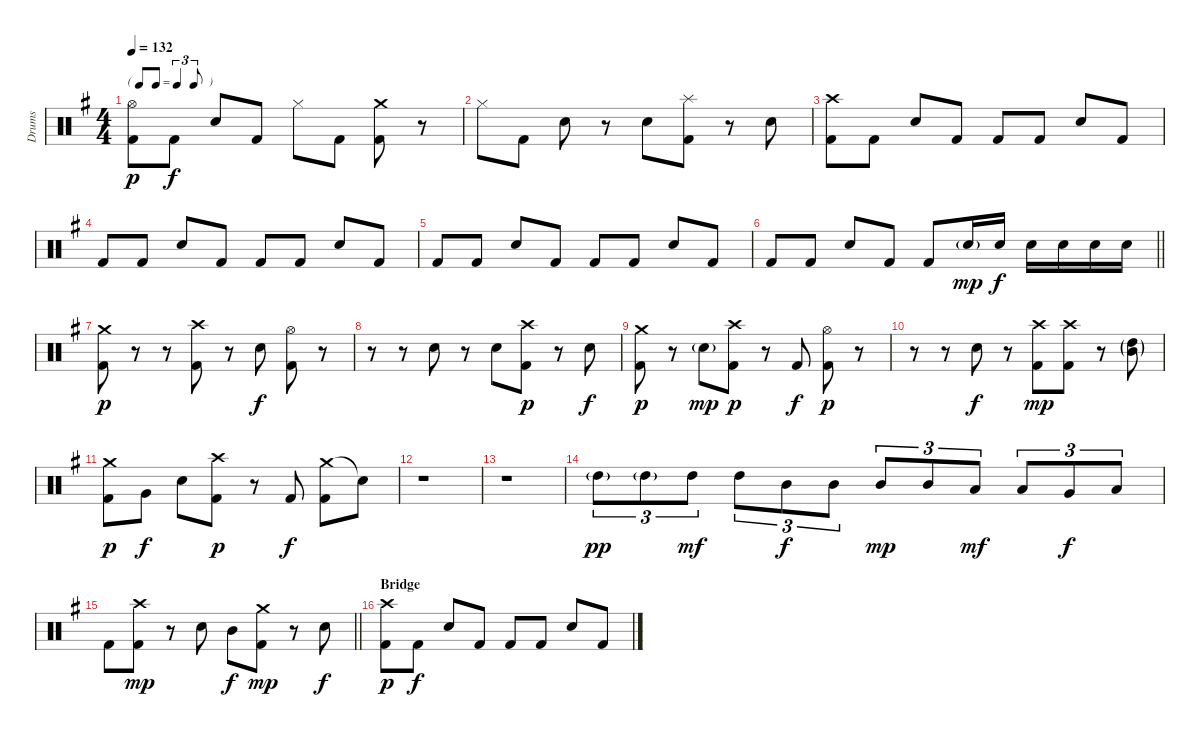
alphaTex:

\track ("Drums" "Drums") {instrument percussion}
\staff {score}
\articulation defaults
\ts (4 4)
\tf triplet8th
\tempo 132
\clef neutral
\ks g
("Hi-Hat (open)" "Kick (hit) 2").8{dy p} "Kick (hit) 2".8{dy f} "Electric Snare (hit)".8 "Kick (hit) 2".8 "Hi-Hat (closed)".8 "Kick (hit) 2".8 ("Crash medium (hit)" "Kick (hit) 2").8 r.8 |
"Hi-Hat (closed)".8 "Kick (hit) 2".8 "Electric Snare (hit)".8 r.8 "Electric Snare (hit)".8 ("Splash (hit)" "Kick (hit) 2").8 r.8 "Electric Snare (hit)".8 |
("Crash high (hit)" "Kick (hit) 2").8 "Kick (hit) 2".8 "Electric Snare (hit)".8 "Kick (hit) 2".8 "Kick (hit) 2".8 "Kick (hit) 2".8 "Electric Snare (hit)".8 "Kick (hit) 2".8 |
"Kick (hit) 2".8 "Kick (hit) 2".8 "Electric Snare (hit)".8 "Kick (hit) 2".8 "Kick (hit) 2".8 "Kick (hit) 2".8 "Electric Snare (hit)".8 "Kick (hit) 2".8 |
"Kick (hit) 2".8 "Kick (hit) 2".8 "Electric Snare (hit)".8 "Kick (hit) 2".8 "Kick (hit) 2".8 "Kick (hit) 2".8 "Electric Snare (hit)".8 "Kick (hit) 2".8 |
\barLineRight lightlight "Kick (hit) 2".8 "Kick (hit) 2".8 "Electric Snare (hit)".8 "Kick (hit) 2".8 "Kick (hit) 2".8 "Electric Snare (hit)"{g}.16{dy mp} "Electric Snare (hit)".16{dy f} "Electric Snare (hit)".16 "Electric Snare (hit)".16 "Electric Snare (hit)".16 "Electric Snare (hit)".16
|
("Crash medium (hit)" "Kick (hit) 2").8{dy p} r.8 r.8 ("Crash high (hit)" "Kick (hit) 2").8 r.8 "Electric Snare (hit)".8{dy f} ("Hi-Hat (open)" "Kick (hit) 2").8 r.8 |
r.8 r.8 "Electric Snare (hit)".8 r.8 "Electric Snare (hit)".8 ("Crash high (hit)" "Kick (hit) 2").8{dy p} r.8 "Electric Snare (hit)".8{dy f} |
("Crash medium (hit)" "Kick (hit) 2").8{dy p} r.8 "Electric Snare (hit)"{g}.8{dy mp} ("Crash high (hit)" "Kick (hit) 2").8{dy p} r.8 "Kick (hit) 2".8{dy f} ("Hi-Hat (open)" "Kick (hit) 2").8{dy p} r.8 |
r.8 r.8 "Electric Snare (hit)".8{dy f} r.8 ("Crash high (hit)" "Kick (hit) 2").8{dy mp} ("Crash high (hit)" "Kick (hit) 2").8 r.8 ("High Tom (hit)"{g} "Mid Tom (hit)"{g}).8 |
("Crash medium (hit)" "Kick (hit) 2").8{dy p} "Very Low Tom (hit)".8{dy f} "Electric Snare (hit)".8 ("Crash high (hit)" "Kick (hit) 2").8{dy p} r.8 "Kick (hit) 2".8{dy f} ("Crash medium (hit)" "Kick (hit) 2").8 "Snare (hit)"{t}.8 |
r.1 |
r.1 |
"High Tom (hit)"{g}.8{tu (3 2) dy pp} "High Tom (hit)"{g}.8{tu (3 2)} "High Tom (hit)".8{tu (3 2) dy mf} "High Tom (hit)".8{tu (3 2)} "Mid Tom (hit)".8{tu (3 2) dy f} "Mid Tom (hit)".8{tu (3 2)} "Mid Tom (hit)".8{tu (3 2) dy mp} "Mid Tom (hit)".8{tu (3 2)} "Low Tom (hit)".8{tu (3 2) dy mf} "Low Tom (hit)".8{tu (3 2)} "Very Low Tom (hit)".8{tu (3 2) dy f} "Low Floor Tom (hit)".8{tu (3 2)} |
\barLineRight lightlight "Kick (hit) 2".8
("Crash high (hit)" "Kick (hit) 2").8{dy mp} r.8 "Electric Snare (hit)".8 "Mid Tom (hit)".8{dy f} ("Crash medium (hit)" "Kick (hit) 2").8{dy mp} r.8 "Electric Snare (hit)".8{dy f} |
\section ("" "Bridge")
("Crash high (hit)" "Kick (hit) 2").8{dy p} "Kick (hit) 2".8{dy f} "Electric Snare (hit)".8 "Kick (hit) 2".8 "Kick (hit) 2".8 "Kick (hit) 2".8 "Electric Snare (hit)".8 "Kick (hit) 2".8
